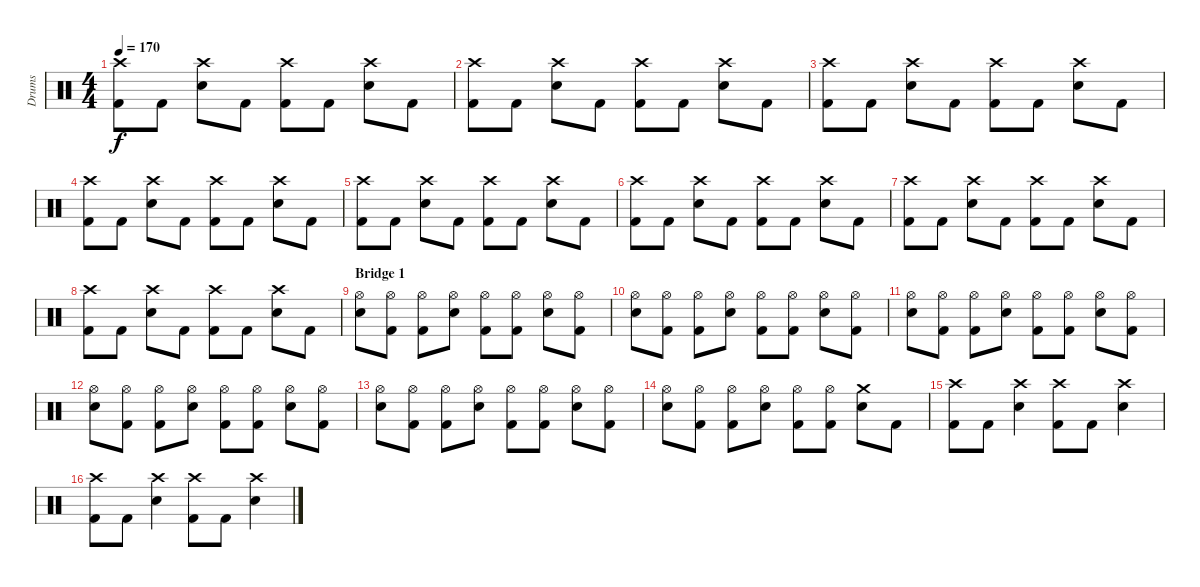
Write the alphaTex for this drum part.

\track ("Drums" "Drums") {instrument percussion}
\staff {score}
\articulation defaults
\ts (4 4)
\tempo 170
\clef neutral
\ks c
("Crash high (hit)" "Kick (hit) 2").8{dy f} "Kick (hit) 2".8 ("Crash high (hit)" "Snare (hit) 2").8 "Kick (hit) 2".8 ("Crash high (hit)" "Kick (hit) 2").8 "Kick (hit) 2".8 ("Crash high (hit)" "Snare (hit) 2").8 "Kick (hit) 2".8 |
("Crash high (hit)" "Kick (hit) 2").8 "Kick (hit) 2".8 ("Crash high (hit)" "Snare (hit) 2").8 "Kick (hit) 2".8 ("Crash high (hit)" "Kick (hit) 2").8 "Kick (hit) 2".8 ("Crash high (hit)" "Snare (hit) 2").8 "Kick (hit) 2".8 |
("Crash high (hit)" "Kick (hit) 2").8 "Kick (hit) 2".8 ("Crash high (hit)" "Snare (hit) 2").8 "Kick (hit) 2".8 ("Crash high (hit)" "Kick (hit) 2").8 "Kick (hit) 2".8 ("Crash high (hit)" "Snare (hit) 2").8 "Kick (hit) 2".8 |
("Crash high (hit)" "Kick (hit) 2").8 "Kick (hit) 2".8 ("Crash high (hit)" "Snare (hit) 2").8 "Kick (hit) 2".8 ("Crash high (hit)" "Kick (hit) 2").8 "Kick (hit) 2".8 ("Crash high (hit)" "Snare (hit) 2").8 "Kick (hit) 2".8 |
("Crash high (hit)" "Kick (hit) 2").8 "Kick (hit) 2".8 ("Crash high (hit)" "Snare (hit) 2").8 "Kick (hit) 2".8 ("Crash high (hit)" "Kick (hit) 2").8 "Kick (hit) 2".8 ("Crash high (hit)" "Snare (hit) 2").8 "Kick (hit) 2".8 |
("Crash high (hit)" "Kick (hit) 2").8 "Kick (hit) 2".8 ("Crash high (hit)" "Snare (hit) 2").8 "Kick (hit) 2".8 ("Crash high (hit)" "Kick (hit) 2").8 "Kick (hit) 2".8 ("Crash high (hit)" "Snare (hit) 2").8 "Kick (hit) 2".8 |
("Crash high (hit)" "Kick (hit) 2").8 "Kick (hit) 2".8 ("Crash high (hit)" "Snare (hit) 2").8 "Kick (hit) 2".8 ("Crash high (hit)" "Kick (hit) 2").8 "Kick (hit) 2".8 ("Crash high (hit)" "Snare (hit) 2").8 "Kick (hit) 2".8 |
("Crash high (hit)" "Kick (hit) 2").8 "Kick (hit) 2".8 ("Crash high (hit)" "Snare (hit) 2").8 "Kick (hit) 2".8 ("Crash high (hit)" "Kick (hit) 2").8 "Kick (hit) 2".8 ("Crash high (hit)" "Snare (hit) 2").8 "Kick (hit) 2".8 |
\section ("" "Bridge 1")
("Hi-Hat (open)" "Snare (hit) 2").8 ("Hi-Hat (open)" "Kick (hit) 2").8 ("Hi-Hat (open)" "Kick (hit) 2").8 ("Hi-Hat (open)" "Snare (hit) 2").8 ("Hi-Hat (open)" "Kick (hit) 2").8 ("Hi-Hat (open)" "Kick (hit) 2").8 ("Hi-Hat (open)" "Snare (hit) 2").8 ("Hi-Hat (open)" "Kick (hit) 2").8 |
("Hi-Hat (open)" "Snare (hit) 2").8 ("Hi-Hat (open)" "Kick (hit) 2").8 ("Hi-Hat (open)" "Kick (hit) 2").8 ("Hi-Hat (open)" "Snare (hit) 2").8 ("Hi-Hat (open)" "Kick (hit) 2").8 ("Hi-Hat (open)" "Kick (hit) 2").8 ("Hi-Hat (open)" "Snare (hit) 2").8 ("Hi-Hat (open)" "Kick (hit) 2").8 |
("Hi-Hat (open)" "Snare (hit) 2").8 ("Hi-Hat (open)" "Kick (hit) 2").8 ("Hi-Hat (open)" "Kick (hit) 2").8 ("Hi-Hat (open)" "Snare (hit) 2").8 ("Hi-Hat (open)" "Kick (hit) 2").8 ("Hi-Hat (open)" "Kick (hit) 2").8 ("Hi-Hat (open)" "Snare (hit) 2").8 ("Hi-Hat (open)" "Kick (hit) 2").8 |
("Hi-Hat (open)" "Snare (hit) 2").8 ("Hi-Hat (open)" "Kick (hit) 2").8 ("Hi-Hat (open)" "Kick (hit) 2").8 ("Hi-Hat (open)" "Snare (hit) 2").8 ("Hi-Hat (open)" "Kick (hit) 2").8 ("Hi-Hat (open)" "Kick (hit) 2").8 ("Hi-Hat (open)" "Snare (hit) 2").8 ("Hi-Hat (open)" "Kick (hit) 2").8 |
("Hi-Hat (open)" "Snare (hit) 2").8 ("Hi-Hat (open)" "Kick (hit) 2").8 ("Hi-Hat (open)" "Kick (hit) 2").8 ("Hi-Hat (open)" "Snare (hit) 2").8 ("Hi-Hat (open)" "Kick (hit) 2").8 ("Hi-Hat (open)" "Kick (hit) 2").8 ("Hi-Hat (open)" "Snare (hit) 2").8 ("Hi-Hat (open)" "Kick (hit) 2").8 |
("Hi-Hat (open)" "Snare (hit) 2").8 ("Hi-Hat (open)" "Kick (hit) 2").8 ("Hi-Hat (open)" "Kick (hit) 2").8 ("Hi-Hat (open)" "Snare (hit) 2").8 ("Hi-Hat (open)" "Kick (hit) 2").8 ("Hi-Hat (open)" "Kick (hit) 2").8 ("Crash medium (hit)" "Snare (hit) 2").8 "Kick (hit) 2".8 |
("Crash high (hit)" "Kick (hit) 2").8 "Kick (hit) 2".8 ("Crash high (hit)" "Snare (hit) 2").4 ("Crash high (hit)" "Kick (hit) 2").8 "Kick (hit) 2".8 ("Crash high (hit)" "Snare (hit) 2").4 |
("Crash high (hit)" "Kick (hit) 2").8 "Kick (hit) 2".8 ("Crash high (hit)" "Snare (hit) 2").4 ("Crash high (hit)" "Kick (hit) 2").8 "Kick (hit) 2".8 ("Crash high (hit)" "Snare (hit) 2").4
